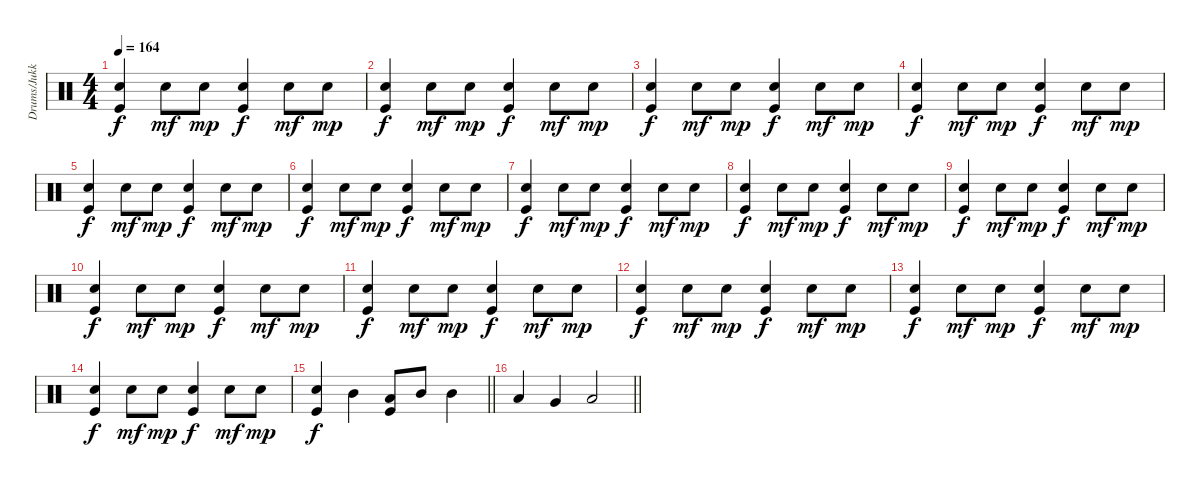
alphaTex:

\track ("Drums/Jukka" "Drums/Jukk") {instrument percussion}
\staff {score}
\articulation defaults
\ts (4 4)
\tempo 164
\clef neutral
\ks c
("Electric Snare (hit)" "Kick (hit)").4{dy f} "Electric Snare (hit)".8{dy mf} "Electric Snare (hit)".8{dy mp} ("Electric Snare (hit)" "Kick (hit)").4{dy f} "Electric Snare (hit)".8{dy mf} "Electric Snare (hit)".8{dy mp} |
("Electric Snare (hit)" "Kick (hit)").4{dy f} "Electric Snare (hit)".8{dy mf} "Electric Snare (hit)".8{dy mp} ("Electric Snare (hit)" "Kick (hit)").4{dy f} "Electric Snare (hit)".8{dy mf} "Electric Snare (hit)".8{dy mp} |
("Electric Snare (hit)" "Kick (hit)").4{dy f} "Electric Snare (hit)".8{dy mf} "Electric Snare (hit)".8{dy mp} ("Electric Snare (hit)" "Kick (hit)").4{dy f} "Electric Snare (hit)".8{dy mf} "Electric Snare (hit)".8{dy mp} |
("Electric Snare (hit)" "Kick (hit)").4{dy f} "Electric Snare (hit)".8{dy mf} "Electric Snare (hit)".8{dy mp} ("Electric Snare (hit)" "Kick (hit)").4{dy f} "Electric Snare (hit)".8{dy mf} "Electric Snare (hit)".8{dy mp} |
("Electric Snare (hit)" "Kick (hit)").4{dy f} "Electric Snare (hit)".8{dy mf} "Electric Snare (hit)".8{dy mp} ("Electric Snare (hit)" "Kick (hit)").4{dy f} "Electric Snare (hit)".8{dy mf} "Electric Snare (hit)".8{dy mp} |
("Electric Snare (hit)" "Kick (hit)").4{dy f} "Electric Snare (hit)".8{dy mf} "Electric Snare (hit)".8{dy mp} ("Electric Snare (hit)" "Kick (hit)").4{dy f} "Electric Snare (hit)".8{dy mf} "Electric Snare (hit)".8{dy mp} |
("Electric Snare (hit)" "Kick (hit)").4{dy f} "Electric Snare (hit)".8{dy mf} "Electric Snare (hit)".8{dy mp} ("Electric Snare (hit)" "Kick (hit)").4{dy f} "Electric Snare (hit)".8{dy mf} "Electric Snare (hit)".8{dy mp} |
("Electric Snare (hit)" "Kick (hit)").4{dy f} "Electric Snare (hit)".8{dy mf} "Electric Snare (hit)".8{dy mp} ("Electric Snare (hit)" "Kick (hit)").4{dy f} "Electric Snare (hit)".8{dy mf} "Electric Snare (hit)".8{dy mp} |
("Electric Snare (hit)" "Kick (hit)").4{dy f} "Electric Snare (hit)".8{dy mf} "Electric Snare (hit)".8{dy mp} ("Electric Snare (hit)" "Kick (hit)").4{dy f} "Electric Snare (hit)".8{dy mf} "Electric Snare (hit)".8{dy mp} |
("Electric Snare (hit)" "Kick (hit)").4{dy f} "Electric Snare (hit)".8{dy mf} "Electric Snare (hit)".8{dy mp} ("Electric Snare (hit)" "Kick (hit)").4{dy f} "Electric Snare (hit)".8{dy mf} "Electric Snare (hit)".8{dy mp} |
("Electric Snare (hit)" "Kick (hit)").4{dy f} "Electric Snare (hit)".8{dy mf} "Electric Snare (hit)".8{dy mp} ("Electric Snare (hit)" "Kick (hit)").4{dy f} "Electric Snare (hit)".8{dy mf} "Electric Snare (hit)".8{dy mp} |
("Electric Snare (hit)" "Kick (hit)").4{dy f} "Electric Snare (hit)".8{dy mf} "Electric Snare (hit)".8{dy mp} ("Electric Snare (hit)" "Kick (hit)").4{dy f} "Electric Snare (hit)".8{dy mf} "Electric Snare (hit)".8{dy mp} |
("Electric Snare (hit)" "Kick (hit)").4{dy f} "Electric Snare (hit)".8{dy mf} "Electric Snare (hit)".8{dy mp} ("Electric Snare (hit)" "Kick (hit)").4{dy f} "Electric Snare (hit)".8{dy mf} "Electric Snare (hit)".8{dy mp} |
("Electric Snare (hit)" "Kick (hit)").4{dy f} "Electric Snare (hit)".8{dy mf} "Electric Snare (hit)".8{dy mp} ("Electric Snare (hit)" "Kick (hit)").4{dy f} "Electric Snare (hit)".8{dy mf} "Electric Snare (hit)".8{dy mp} |
\barLineRight lightlight
("Electric Snare (hit)" "Kick (hit)").4{dy f} "Mid Tom (hit)".4 ("Low Floor Tom (hit)" "Kick (hit)").8 "Mid Tom (hit)".8 "Mid Tom (hit)".4 |
\barLineRight lightlight "Low Tom (hit)".4 "Very Low Tom (hit)".4 "Low Floor Tom (hit)".2
